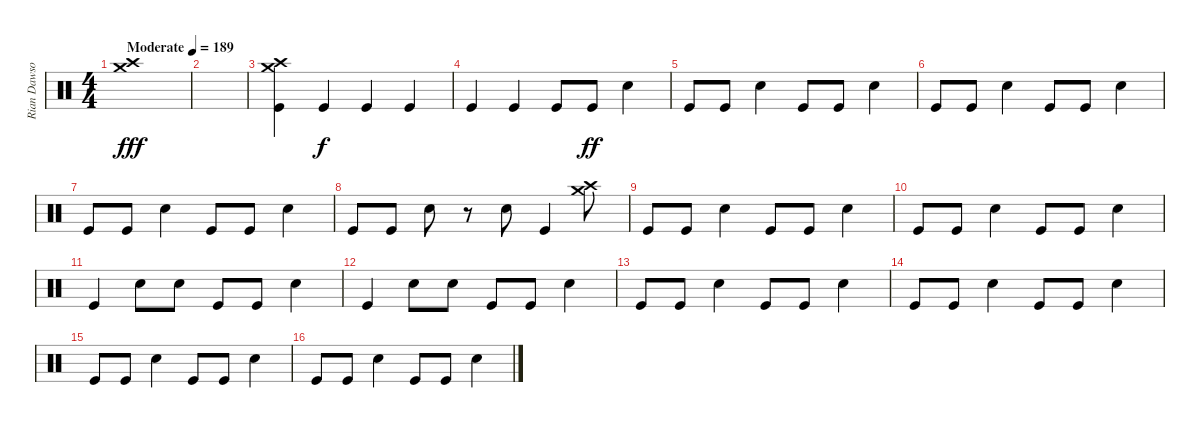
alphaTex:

\track ("Rian Dawson" "Rian Dawso") {instrument percussion}
\staff {score}
\articulation defaults
\ts (4 4)
\tempo (189 "Moderate")
\clef neutral
\ks c
("Crash high (hit)" "Crash medium (hit)").1{dy fff} |
|
("Crash high (hit)" "Crash medium (hit)" "Kick (hit)").4 "Kick (hit)".4{dy f} "Kick (hit)".4 "Kick (hit)".4 |
"Kick (hit)".4 "Kick (hit)".4 "Kick (hit)".8 "Kick (hit)".8{dy ff} "Snare (hit) 2".4 |
"Kick (hit)".8 "Kick (hit)".8 "Snare (hit) 2".4 "Kick (hit)".8 "Kick (hit)".8 "Snare (hit) 2".4 |
"Kick (hit)".8 "Kick (hit)".8 "Snare (hit) 2".4 "Kick (hit)".8 "Kick (hit)".8 "Snare (hit) 2".4 |
"Kick (hit)".8 "Kick (hit)".8 "Snare (hit) 2".4 "Kick (hit)".8 "Kick (hit)".8 "Snare (hit) 2".4 |
"Kick (hit)".8 "Kick (hit)".8 "Snare (hit) 2".8 r.8 "Snare (hit) 2".8 "Kick (hit)".4 ("Crash high (hit)" "Crash medium (hit)").8 |
"Kick (hit)".8 "Kick (hit)".8 "Snare (hit) 2".4 "Kick (hit)".8 "Kick (hit)".8 "Snare (hit) 2".4 |
"Kick (hit)".8 "Kick (hit)".8 "Snare (hit) 2".4 "Kick (hit)".8 "Kick (hit)".8 "Snare (hit) 2".4 |
"Kick (hit)".4 "Snare (hit) 2".8 "Snare (hit) 2".8 "Kick (hit)".8 "Kick (hit)".8 "Snare (hit) 2".4 |
"Kick (hit)".4 "Snare (hit) 2".8 "Snare (hit) 2".8 "Kick (hit)".8 "Kick (hit)".8 "Snare (hit) 2".4 |
"Kick (hit)".8 "Kick (hit)".8 "Snare (hit) 2".4 "Kick (hit)".8 "Kick (hit)".8 "Snare (hit) 2".4 |
"Kick (hit)".8 "Kick (hit)".8 "Snare (hit) 2".4 "Kick (hit)".8 "Kick (hit)".8 "Snare (hit) 2".4 |
"Kick (hit)".8 "Kick (hit)".8 "Snare (hit) 2".4 "Kick (hit)".8 "Kick (hit)".8 "Snare (hit) 2".4 |
"Kick (hit)".8 "Kick (hit)".8 "Snare (hit) 2".4 "Kick (hit)".8 "Kick (hit)".8 "Snare (hit) 2".4
